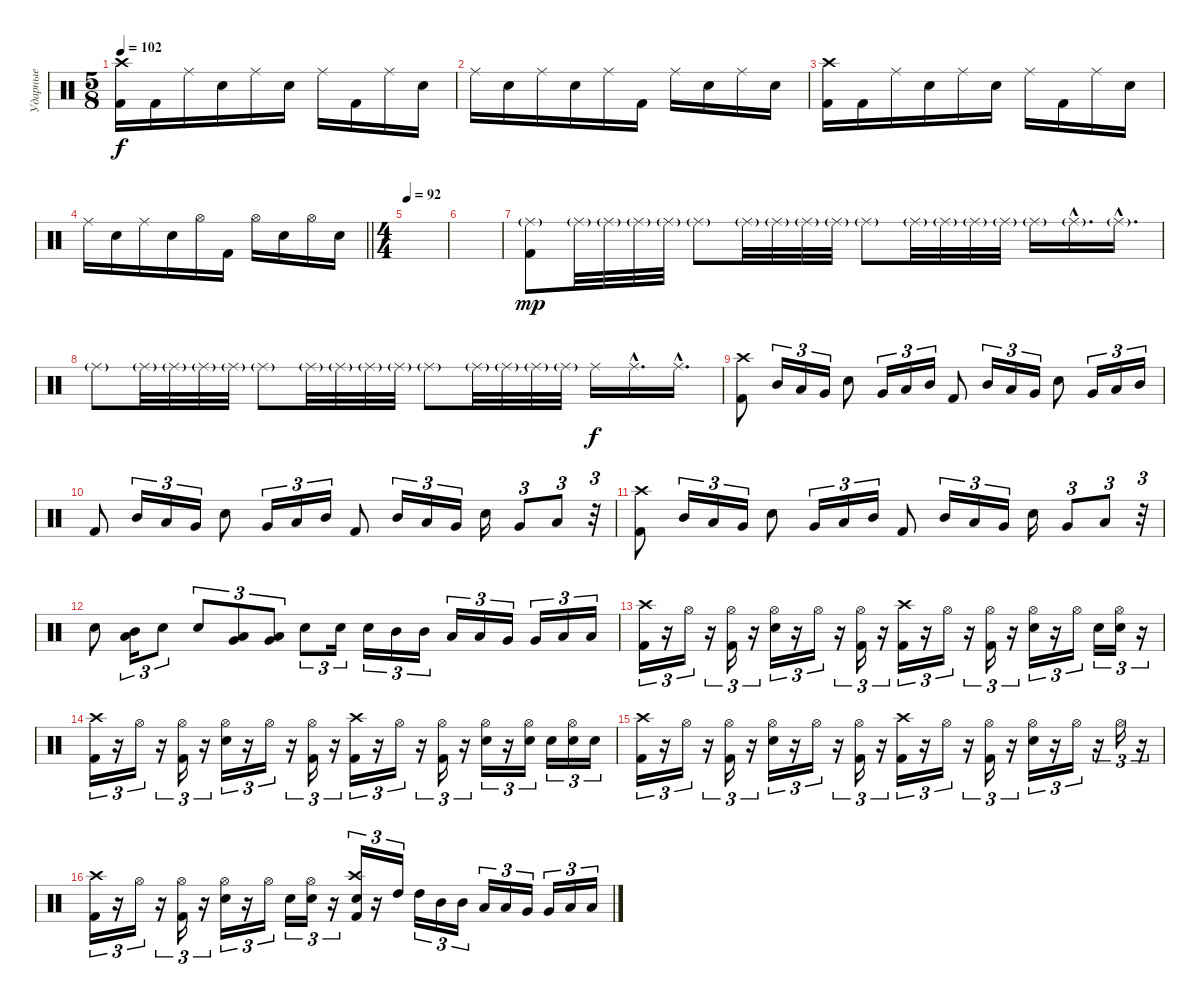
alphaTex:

\track ("Ударные" "Ударные") {instrument percussion}
\staff {score}
\articulation defaults
\ts (5 8)
\tempo 102
\clef neutral
\ks c
("Kick (hit) 2" "Crash high (hit)").16{dy f} "Kick (hit) 2".16 "Ride (middle)".16 "Electric Snare (hit)".16 "Ride (middle)".16 "Electric Snare (hit)".16 "Ride (middle)".16 "Kick (hit) 2".16 "Ride (middle)".16 "Electric Snare (hit)".16 |
"Ride (middle)".16 "Electric Snare (hit)".16 "Ride (middle)".16 "Electric Snare (hit)".16 "Ride (middle)".16 "Kick (hit) 2".16 "Ride (middle)".16 "Electric Snare (hit)".16 "Ride (middle)".16 "Electric Snare (hit)".16 |
("Kick (hit) 2" "Crash high (hit)").16 "Kick (hit) 2".16 "Ride (middle)".16 "Electric Snare (hit)".16 "Ride (middle)".16 "Electric Snare (hit)".16 "Ride (middle)".16 "Kick (hit) 2".16 "Ride (middle)".16 "Electric Snare (hit)".16 |
\barLineRight lightlight "Ride (middle)".16 "Electric Snare (hit)".16 "Ride (middle)".16 "Electric Snare (hit)".16 "Hi-Hat (open)".16 "Kick (hit) 2".16 "Hi-Hat (open)".16 "Electric Snare (hit)".16 "Hi-Hat (open)".16 "Electric Snare (hit)".16
|
\ts (4 4)
\section ("" "")
\tempo 92
|
|
("Ride (middle)"{g} "Kick (hit) 2").8{dy mp} "Ride (middle)"{g}.32 "Ride (middle)"{g}.32 "Ride (middle)"{g}.32 "Ride (middle)"{g}.32 "Ride (middle)"{g}.8 "Ride (middle)"{g}.32 "Ride (middle)"{g}.32 "Ride (middle)"{g}.32 "Ride (middle)"{g}.32 "Ride (middle)"{g}.8 "Ride (middle)"{g}.32 "Ride (middle)"{g}.32 "Ride (middle)"{g}.32 "Ride (middle)"{g}.32 "Ride (middle)"{g}.16 "Ride (middle)"{g hac}.16{d} "Ride (middle)"{g hac}.16{d} |
"Ride (middle)"{g}.8 "Ride (middle)"{g}.32 "Ride (middle)"{g}.32 "Ride (middle)"{g}.32 "Ride (middle)"{g}.32 "Ride (middle)"{g}.8 "Ride (middle)"{g}.32 "Ride (middle)"{g}.32 "Ride (middle)"{g}.32 "Ride (middle)"{g}.32 "Ride (middle)"{g}.8 "Ride (middle)"{g}.32 "Ride (middle)"{g}.32 "Ride (middle)"{g}.32 "Ride (middle)"{g}.32 "Ride (middle)".16{dy f} "Ride (middle)"{hac}.16{d} "Ride (middle)"{hac}.16{d} |
("Kick (hit) 2" "Crash high (hit)").8 "Mid Tom (hit)".16{tu (3 2)} "Low Tom (hit)".16{tu (3 2)} "Very Low Tom (hit)".16{tu (3 2)} "Electric Snare (hit)".8 "Very Low Tom (hit)".16{tu (3 2)} "Low Tom (hit)".16{tu (3 2)} "Mid Tom (hit)".16{tu (3 2)} "Kick (hit) 2".8 "Mid Tom (hit)".16{tu (3 2)} "Low Tom (hit)".16{tu (3 2)} "Very Low Tom (hit)".16{tu (3 2)} "Electric Snare (hit)".8 "Very Low Tom (hit)".16{tu (3 2)} "Low Tom (hit)".16{tu (3 2)} "Mid Tom (hit)".16{tu (3 2)} |
"Kick (hit) 2".8 "Mid Tom (hit)".16{tu (3 2)} "Low Tom (hit)".16{tu (3 2)} "Very Low Tom (hit)".16{tu (3 2)} "Electric Snare (hit)".8 "Very Low Tom (hit)".16{tu (3 2)} "Low Tom (hit)".16{tu (3 2)} "Mid Tom (hit)".16{tu (3 2)} "Kick (hit) 2".8 "Mid Tom (hit)".16{tu (3 2)} "Low Tom (hit)".16{tu (3 2)} "Very Low Tom (hit)".16{tu (3 2)} "Electric Snare (hit)".16 "Very Low Tom (hit)".8{tu (3 2)} "Low Tom (hit)".8{tu (3 2)} r.32{tu (3 2)} |
("Kick (hit) 2" "Crash high (hit)").8 "Mid Tom (hit)".16{tu (3 2)} "Low Tom (hit)".16{tu (3 2)} "Very Low Tom (hit)".16{tu (3 2)} "Electric Snare (hit)".8 "Very Low Tom (hit)".16{tu (3 2)} "Low Tom (hit)".16{tu (3 2)} "Mid Tom (hit)".16{tu (3 2)} "Kick (hit) 2".8 "Mid Tom (hit)".16{tu (3 2)} "Low Tom (hit)".16{tu (3 2)} "Very Low Tom (hit)".16{tu (3 2)} "Electric Snare (hit)".16 "Very Low Tom (hit)".8{tu (3 2)} "Low Tom (hit)".8{tu (3 2)} r.32{tu (3 2)} |
"Electric Snare (hit)".8 ("Mid Tom (hit)" "Low Tom (hit)").16{tu (3 2) bd 60} "Electric Snare (hit)".8{tu (3 2)} "Electric Snare (hit)".8{tu (3 2)} ("Low Tom (hit)" "Very Low Tom (hit)").8{tu (3 2) bd 60} ("Very Low Tom (hit)" "Low Floor Tom (hit)").8{tu (3 2) bd 60} "Electric Snare (hit)".8{tu (3 2)} "Electric Snare (hit)".16{tu (3 2)} "Electric Snare (hit)".16{tu (3 2)} "Mid Tom (hit)".16{tu (3 2)} "Mid Tom (hit)".16{tu (3 2)} "Low Tom (hit)".16{tu (3 2)} "Low Tom (hit)".16{tu (3 2)} "Very Low Tom (hit)".16{tu (3 2)} "Very Low Tom (hit)".16{tu (3 2)} "Low Floor Tom (hit)".16{tu (3 2)} "Low Floor Tom (hit)".16{tu (3 2)} |
("Kick (hit) 2" "Crash high (hit)").16{tu (3 2)} r.16{tu (3 2)} "Hi-Hat (open)".16{tu (3 2)} r.16{tu (3 2)} ("Kick (hit) 2" "Hi-Hat (open)").16{tu (3 2)} r.16{tu (3 2)} ("Hi-Hat (open)" "Electric Snare (hit)").16{tu (3 2)} r.16{tu (3 2)} "Hi-Hat (open)".16{tu (3 2)} r.16{tu (3 2)} ("Kick (hit) 2" "Hi-Hat (open)").16{tu (3 2)} r.16{tu (3 2)} ("Kick (hit) 2" "Crash high (hit)").16{tu (3 2)} r.16{tu (3 2)} "Hi-Hat (open)".16{tu (3 2)} r.16{tu (3 2)} ("Kick (hit) 2" "Hi-Hat (open)").16{tu (3 2)} r.16{tu (3 2)} ("Hi-Hat (open)" "Electric Snare (hit)").16{tu (3 2)} r.16{tu (3 2)} "Hi-Hat (open)".16{tu (3 2)} "Electric Snare (hit)".16{tu (3 2)} ("Hi-Hat (open)" "Electric Snare (hit)").16{tu (3 2)} r.16{tu (3 2)} |
("Kick (hit) 2" "Crash high (hit)").16{tu (3 2)} r.16{tu (3 2)} "Hi-Hat (open)".16{tu (3 2)} r.16{tu (3 2)} ("Kick (hit) 2" "Hi-Hat (open)").16{tu (3 2)} r.16{tu (3 2)} ("Hi-Hat (open)" "Electric Snare (hit)").16{tu (3 2)} r.16{tu (3 2)} "Hi-Hat (open)".16{tu (3 2)} r.16{tu (3 2)} ("Kick (hit) 2" "Hi-Hat (open)").16{tu (3 2)} r.16{tu (3 2)} ("Kick (hit) 2" "Crash high (hit)").16{tu (3 2)} r.16{tu (3 2)} "Hi-Hat (open)".16{tu (3 2)} r.16{tu (3 2)} ("Kick (hit) 2" "Hi-Hat (open)").16{tu (3 2)} r.16{tu (3 2)} ("Hi-Hat (open)" "Electric Snare (hit)").16{tu (3 2)} r.16{tu (3 2)} ("Hi-Hat (open)" "Electric Snare (hit)").16{tu (3 2)} "Electric Snare (hit)".16{tu (3 2)} ("Hi-Hat (open)" "Electric Snare (hit)").16{tu (3 2)} "Electric Snare (hit)".16{tu (3 2)} |
("Kick (hit) 2" "Crash high (hit)").16{tu (3 2)} r.16{tu (3 2)} "Hi-Hat (open)".16{tu (3 2)} r.16{tu (3 2)} ("Kick (hit) 2" "Hi-Hat (open)").16{tu (3 2)} r.16{tu (3 2)} ("Hi-Hat (open)" "Electric Snare (hit)").16{tu (3 2)} r.16{tu (3 2)} "Hi-Hat (open)".16{tu (3 2)} r.16{tu (3 2)} ("Kick (hit) 2" "Hi-Hat (open)").16{tu (3 2)} r.16{tu (3 2)} ("Kick (hit) 2" "Crash high (hit)").16{tu (3 2)} r.16{tu (3 2)} "Hi-Hat (open)".16{tu (3 2)} r.16{tu (3 2)} ("Kick (hit) 2" "Hi-Hat (open)").16{tu (3 2)} r.16{tu (3 2)} ("Hi-Hat (open)" "Electric Snare (hit)").16{tu (3 2)} r.16{tu (3 2)} "Hi-Hat (open)".16{tu (3 2)} r.16{tu (3 2)} "Hi-Hat (open)".16{tu (3 2)} r.16{tu (3 2)} |
("Kick (hit) 2" "Crash high (hit)").16{tu (3 2)} r.16{tu (3 2)} "Hi-Hat (open)".16{tu (3 2)} r.16{tu (3 2)} ("Kick (hit) 2" "Hi-Hat (open)").16{tu (3 2)} r.16{tu (3 2)} ("Hi-Hat (open)" "Electric Snare (hit)").16{tu (3 2)} r.16{tu (3 2)} "Hi-Hat (open)".16{tu (3 2)} "Electric Snare (hit)".16{tu (3 2)} ("Hi-Hat (open)" "Electric Snare (hit)").16{tu (3 2)} r.16{tu (3 2)} ("Kick (hit) 2" "Crash high (hit)" "Electric Snare (hit)").16{tu (3 2)} r.16{tu (3 2)} "High Tom (hit)".16{tu (3 2)} "High Tom (hit)".16{tu (3 2)} "Mid Tom (hit)".16{tu (3 2)} "Mid Tom (hit)".16{tu (3 2)} "Low Tom (hit)".16{tu (3 2)} "Low Tom (hit)".16{tu (3 2)} "Very Low Tom (hit)".16{tu (3 2)} "Very Low Tom (hit)".16{tu (3 2)} "Low Floor Tom (hit)".16{tu (3 2)} "Low Floor Tom (hit)".16{tu (3 2)}
